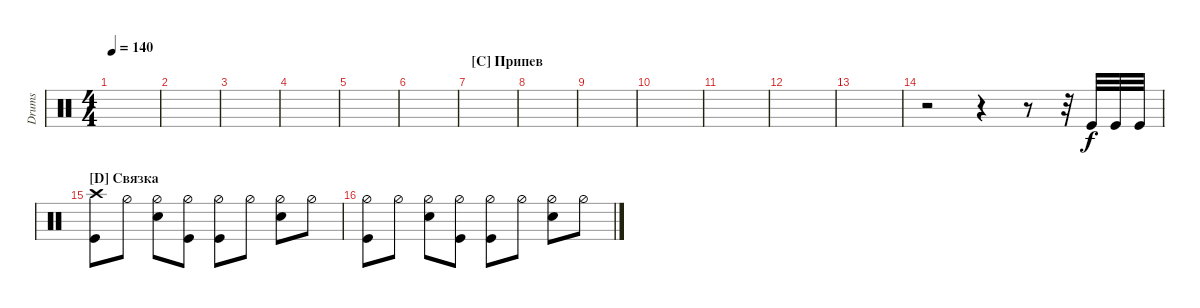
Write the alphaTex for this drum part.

\track ("Drumkit" "Drums") {instrument percussion}
\staff {score}
\articulation defaults
\ts (4 4)
\tempo 140
\clef neutral
\ks c
|
|
|
|
|
|
\section ("C" "Припев")
|
|
|
|
|
|
|
r.2 r.4 r.8 r.32 "Kick (hit)".32 "Kick (hit)".32 "Kick (hit)".32 |
\section ("D" "Связка")
("Kick (hit)" "Crash high (hit)").8 "Hi-Hat (half)".8 ("Snare (hit) 2" "Hi-Hat (half)").8 ("Kick (hit)" "Hi-Hat (half)").8 ("Kick (hit)" "Hi-Hat (half)").8 "Hi-Hat (half)".8 ("Snare (hit) 2" "Hi-Hat (half)").8 "Hi-Hat (half)".8 |
("Kick (hit)" "Hi-Hat (half)").8 "Hi-Hat (half)".8 ("Snare (hit) 2" "Hi-Hat (half)").8 ("Kick (hit)" "Hi-Hat (half)").8 ("Kick (hit)" "Hi-Hat (half)").8 "Hi-Hat (half)".8 ("Snare (hit) 2" "Hi-Hat (half)").8 "Hi-Hat (half)".8
